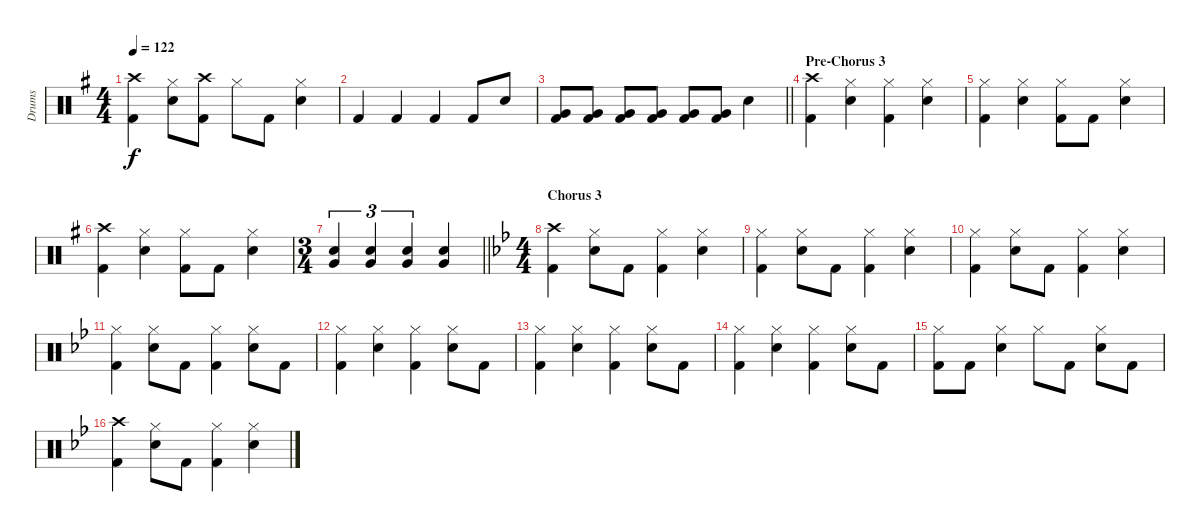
\track ("Drums" "Drums") {instrument percussion}
\staff {score}
\articulation defaults
\ts (4 4)
\tempo 122
\clef neutral
\ks eminor
("Crash high (hit)" "Kick (hit) 2").4{dy f} ("Hi-Hat (closed)" "Electric Snare (hit)").8 ("Crash high (hit)" "Kick (hit) 2").8 "Hi-Hat (closed)".8 "Kick (hit) 2".8 ("Hi-Hat (closed)" "Electric Snare (hit)").4 |
"Kick (hit) 2".4 "Kick (hit) 2".4 "Kick (hit) 2".4 "Kick (hit) 2".8 "Electric Snare (hit)".8 |
\barLineRight lightlight
("Very Low Tom (hit)" "Kick (hit) 2").8 ("Very Low Tom (hit)" "Kick (hit) 2").8 ("Very Low Tom (hit)" "Kick (hit) 2").8 ("Very Low Tom (hit)" "Kick (hit) 2").8 ("Very Low Tom (hit)" "Kick (hit) 2").8 ("Very Low Tom (hit)" "Kick (hit) 2").8 "Electric Snare (hit)".4 |
\section ("" "Pre-Chorus 3")
("Crash high (hit)" "Kick (hit) 2").4 ("Hi-Hat (closed)" "Electric Snare (hit)").4 ("Hi-Hat (closed)" "Kick (hit) 2").4 ("Hi-Hat (closed)" "Electric Snare (hit)").4 |
("Hi-Hat (closed)" "Kick (hit) 2").4 ("Hi-Hat (closed)" "Electric Snare (hit)").4 ("Hi-Hat (closed)" "Kick (hit) 2").8 "Kick (hit) 2".8 ("Hi-Hat (closed)" "Electric Snare (hit)").4 |
("Crash high (hit)" "Kick (hit) 2").4 ("Hi-Hat (closed)" "Electric Snare (hit)").4 ("Hi-Hat (closed)" "Kick (hit) 2").8 "Kick (hit) 2".8 ("Hi-Hat (closed)" "Electric Snare (hit)").4 |
\ts (3 4)
\barLineRight lightlight
("Electric Snare (hit)" "Very Low Tom (hit)").4{tu (3 2)} ("Electric Snare (hit)" "Very Low Tom (hit)").4{tu (3 2)} ("Electric Snare (hit)" "Very Low Tom (hit)").4{tu (3 2)} ("Electric Snare (hit)" "Very Low Tom (hit)").4 |
\ts (4 4)
\section ("" "Chorus 3")
\ks gminor
("Crash high (hit)" "Kick (hit) 2").4 ("Hi-Hat (closed)" "Electric Snare (hit)").8 "Kick (hit) 2".8 ("Hi-Hat (closed)" "Kick (hit) 2").4 ("Hi-Hat (closed)" "Electric Snare (hit)").4 |
("Hi-Hat (closed)" "Kick (hit) 2").4 ("Hi-Hat (closed)" "Electric Snare (hit)").8 "Kick (hit) 2".8 ("Hi-Hat (closed)" "Kick (hit) 2").4 ("Hi-Hat (closed)" "Electric Snare (hit)").4 |
("Hi-Hat (closed)" "Kick (hit) 2").4 ("Hi-Hat (closed)" "Electric Snare (hit)").8 "Kick (hit) 2".8 ("Hi-Hat (closed)" "Kick (hit) 2").4 ("Hi-Hat (closed)" "Electric Snare (hit)").4 |
("Hi-Hat (closed)" "Kick (hit) 2").4 ("Hi-Hat (closed)" "Electric Snare (hit)").8 "Kick (hit) 2".8 ("Hi-Hat (closed)" "Kick (hit) 2").4 ("Hi-Hat (closed)" "Electric Snare (hit)").8 "Kick (hit) 2".8 |
("Hi-Hat (closed)" "Kick (hit) 2").4 ("Hi-Hat (closed)" "Electric Snare (hit)").4 ("Hi-Hat (closed)" "Kick (hit) 2").4 ("Hi-Hat (closed)" "Electric Snare (hit)").8 "Kick (hit) 2".8 |
("Hi-Hat (closed)" "Kick (hit) 2").4 ("Hi-Hat (closed)" "Electric Snare (hit)").4 ("Hi-Hat (closed)" "Kick (hit) 2").4 ("Hi-Hat (closed)" "Electric Snare (hit)").8 "Kick (hit) 2".8 |
("Hi-Hat (closed)" "Kick (hit) 2").4 ("Hi-Hat (closed)" "Electric Snare (hit)").4 ("Hi-Hat (closed)" "Kick (hit) 2").4 ("Hi-Hat (closed)" "Electric Snare (hit)").8 "Kick (hit) 2".8 |
("Hi-Hat (closed)" "Kick (hit) 2").8 "Kick (hit) 2".8 ("Hi-Hat (closed)" "Electric Snare (hit)").4 "Hi-Hat (closed)".8 "Kick (hit) 2".8 ("Hi-Hat (closed)" "Electric Snare (hit)").8 "Kick (hit) 2".8 |
("Crash high (hit)" "Kick (hit) 2").4 ("Hi-Hat (closed)" "Electric Snare (hit)").8 "Kick (hit) 2".8 ("Hi-Hat (closed)" "Kick (hit) 2").4 ("Hi-Hat (closed)" "Electric Snare (hit)").4
